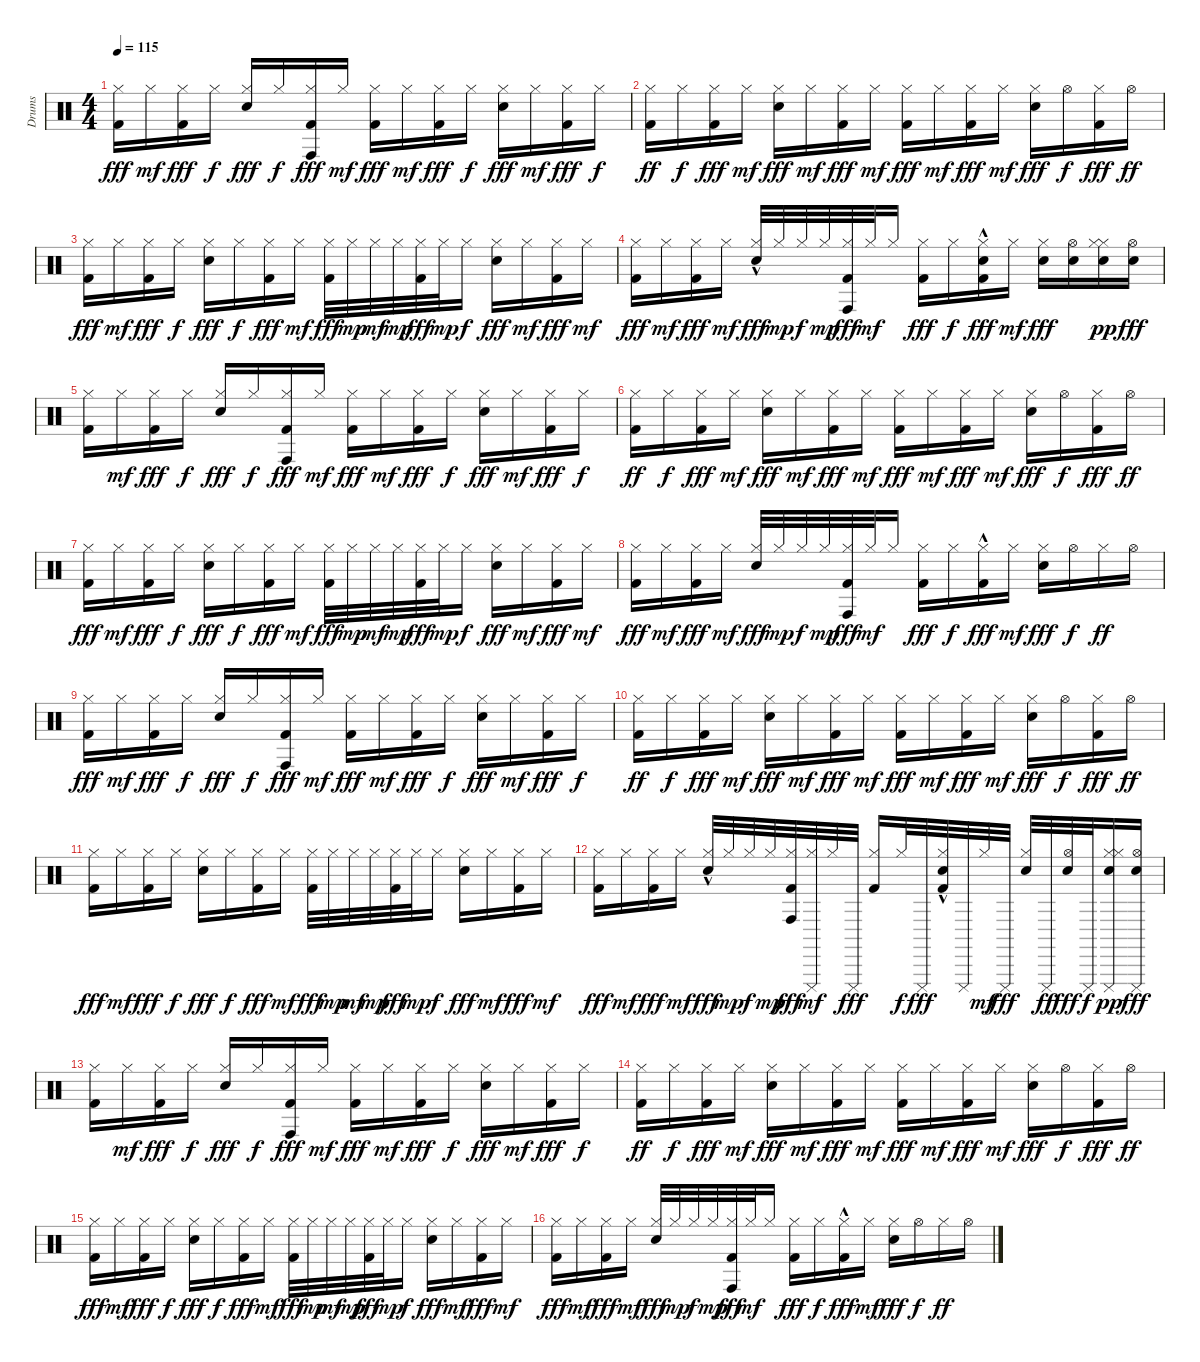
\track ("Drums" "Drums") {instrument percussion}
\staff {score}
\articulation defaults
\ts (4 4)
\tempo 115
\clef neutral
\ks c
("Hi-Hat (closed)" "Kick (hit) 2").16{dy fff} "Hi-Hat (closed)".16{dy mf} ("Hi-Hat (closed)" "Kick (hit) 2").16{dy fff} "Hi-Hat (closed)".16{dy f} ("Hi-Hat (closed)" "Snare (hit) 2").16{dy fff} "Hi-Hat (closed)".16{dy f} ("Hi-Hat (closed)" "Conga high (hit)" "Kick (hit) 2").16{dy fff} "Hi-Hat (closed)".16{dy mf} ("Hi-Hat (closed)" "Kick (hit) 2").16{dy fff} "Hi-Hat (closed)".16{dy mf} ("Hi-Hat (closed)" "Kick (hit) 2").16{dy fff} "Hi-Hat (closed)".16{dy f} ("Hi-Hat (closed)" "Snare (hit) 2").16{dy fff} "Hi-Hat (closed)".16{dy mf} ("Hi-Hat (closed)" "Kick (hit) 2").16{dy fff} "Hi-Hat (closed)".16{dy f} |
("Hi-Hat (closed)" "Kick (hit) 2").16{dy ff} "Hi-Hat (closed)".16{dy f} ("Hi-Hat (closed)" "Kick (hit) 2").16{dy fff} "Hi-Hat (closed)".16{dy mf} ("Hi-Hat (closed)" "Snare (hit) 2").16{dy fff} "Hi-Hat (closed)".16{dy mf} ("Hi-Hat (closed)" "Kick (hit) 2").16{dy fff} "Hi-Hat (closed)".16{dy mf} ("Hi-Hat (closed)" "Kick (hit) 2").16{dy fff} "Hi-Hat (closed)".16{dy mf} ("Hi-Hat (closed)" "Kick (hit) 2").16{dy fff} "Hi-Hat (closed)".16{dy mf} ("Hi-Hat (closed)" "Snare (hit) 2").16{dy fff} "Hi-Hat (open)".16{dy f} ("Hi-Hat (closed)" "Kick (hit) 2").16{dy fff} "Hi-Hat (open)".16{dy ff} |
("Hi-Hat (closed)" "Kick (hit) 2").16{dy fff} "Hi-Hat (closed)".16{dy mf} ("Hi-Hat (closed)" "Kick (hit) 2").16{dy fff} "Hi-Hat (closed)".16{dy f} ("Hi-Hat (closed)" "Snare (hit) 2").16{dy fff} "Hi-Hat (closed)".16{dy f} ("Hi-Hat (closed)" "Kick (hit) 2").16{dy fff} "Hi-Hat (closed)".16{dy mf} ("Hi-Hat (closed)" "Kick (hit) 2").32{dy fff} "Hi-Hat (closed)".32{dy mp} "Hi-Hat (closed)".32{dy mf} "Hi-Hat (closed)".32{dy mp} ("Hi-Hat (closed)" "Kick (hit) 2").32{dy fff} "Hi-Hat (closed)".32{dy mp} "Hi-Hat (closed)".16{dy f} ("Hi-Hat (closed)" "Snare (hit) 2").16{dy fff} "Hi-Hat (closed)".16{dy mf} ("Hi-Hat (closed)" "Kick (hit) 2").16{dy fff} "Hi-Hat (closed)".16{dy mf} |
("Hi-Hat (closed)" "Kick (hit) 2").16{dy fff} "Hi-Hat (closed)".16{dy mf} ("Hi-Hat (closed)" "Kick (hit) 2").16{dy fff} "Hi-Hat (closed)".16{dy mf} ("Hi-Hat (closed)" "Snare (hit) 2"{hac}).32{dy fff} "Hi-Hat (closed)".32{dy mp} "Hi-Hat (closed)".32{dy f} "Hi-Hat (closed)".32{dy mp} ("Hi-Hat (closed)" "Conga high (hit)" "Kick (hit) 2").32{dy fff} "Hi-Hat (closed)".32{dy mf} "Hi-Hat (closed)".16 ("Hi-Hat (closed)" "Kick (hit) 2").16{dy fff} "Hi-Hat (closed)".16{dy f} ("Hi-Hat (closed)" "Snare (hit) 2" "Kick (hit) 2"{hac}).16{dy fff} "Hi-Hat (closed)".16{dy mf} ("Hi-Hat (closed)" "Snare (hit) 2").16{dy fff} ("Hi-Hat (open)" "Snare (hit) 2").16 ("Hi-Hat (closed)" "Hi-Hat (closed)" "Snare (hit) 2").16{dy pp} ("Hi-Hat (open)" "Snare (hit) 2").16{dy fff} |
("Hi-Hat (closed)" "Kick (hit) 2").16 "Hi-Hat (closed)".16{dy mf} ("Hi-Hat (closed)" "Kick (hit) 2").16{dy fff} "Hi-Hat (closed)".16{dy f} ("Hi-Hat (closed)" "Snare (hit) 2").16{dy fff} "Hi-Hat (closed)".16{dy f} ("Hi-Hat (closed)" "Conga high (hit)" "Kick (hit) 2").16{dy fff} "Hi-Hat (closed)".16{dy mf} ("Hi-Hat (closed)" "Kick (hit) 2").16{dy fff} "Hi-Hat (closed)".16{dy mf} ("Hi-Hat (closed)" "Kick (hit) 2").16{dy fff} "Hi-Hat (closed)".16{dy f} ("Hi-Hat (closed)" "Snare (hit) 2").16{dy fff} "Hi-Hat (closed)".16{dy mf} ("Hi-Hat (closed)" "Kick (hit) 2").16{dy fff} "Hi-Hat (closed)".16{dy f} |
("Hi-Hat (closed)" "Kick (hit) 2").16{dy ff} "Hi-Hat (closed)".16{dy f} ("Hi-Hat (closed)" "Kick (hit) 2").16{dy fff} "Hi-Hat (closed)".16{dy mf} ("Hi-Hat (closed)" "Snare (hit) 2").16{dy fff} "Hi-Hat (closed)".16{dy mf} ("Hi-Hat (closed)" "Kick (hit) 2").16{dy fff} "Hi-Hat (closed)".16{dy mf} ("Hi-Hat (closed)" "Kick (hit) 2").16{dy fff} "Hi-Hat (closed)".16{dy mf} ("Hi-Hat (closed)" "Kick (hit) 2").16{dy fff} "Hi-Hat (closed)".16{dy mf} ("Hi-Hat (closed)" "Snare (hit) 2").16{dy fff} "Hi-Hat (open)".16{dy f} ("Hi-Hat (closed)" "Kick (hit) 2").16{dy fff} "Hi-Hat (open)".16{dy ff} |
("Hi-Hat (closed)" "Kick (hit) 2").16{dy fff} "Hi-Hat (closed)".16{dy mf} ("Hi-Hat (closed)" "Kick (hit) 2").16{dy fff} "Hi-Hat (closed)".16{dy f} ("Hi-Hat (closed)" "Snare (hit) 2").16{dy fff} "Hi-Hat (closed)".16{dy f} ("Hi-Hat (closed)" "Kick (hit) 2").16{dy fff} "Hi-Hat (closed)".16{dy mf} ("Hi-Hat (closed)" "Kick (hit) 2").32{dy fff} "Hi-Hat (closed)".32{dy mp} "Hi-Hat (closed)".32{dy mf} "Hi-Hat (closed)".32{dy mp} ("Hi-Hat (closed)" "Kick (hit) 2").32{dy fff} "Hi-Hat (closed)".32{dy mp} "Hi-Hat (closed)".16{dy f} ("Hi-Hat (closed)" "Snare (hit) 2").16{dy fff} "Hi-Hat (closed)".16{dy mf} ("Hi-Hat (closed)" "Kick (hit) 2").16{dy fff} "Hi-Hat (closed)".16{dy mf} |
("Hi-Hat (closed)" "Kick (hit) 2").16{dy fff} "Hi-Hat (closed)".16{dy mf} ("Hi-Hat (closed)" "Kick (hit) 2").16{dy fff} "Hi-Hat (closed)".16{dy mf} ("Hi-Hat (closed)" "Snare (hit) 2").32{dy fff} "Hi-Hat (closed)".32{dy mp} "Hi-Hat (closed)".32{dy f} "Hi-Hat (closed)".32{dy mp} ("Hi-Hat (closed)" "Conga high (hit)" "Kick (hit) 2").32{dy fff} "Hi-Hat (closed)".32{dy mf} "Hi-Hat (closed)".16 ("Hi-Hat (closed)" "Kick (hit) 2").16{dy fff} "Hi-Hat (closed)".16{dy f} ("Hi-Hat (closed)" "Kick (hit) 2"{hac}).16{dy fff} "Hi-Hat (closed)".16{dy mf} ("Hi-Hat (closed)" "Snare (hit) 2").16{dy fff} "Hi-Hat (open)".16{dy f} "Hi-Hat (closed)".16{dy ff} "Hi-Hat (open)".16 |
("Hi-Hat (closed)" "Kick (hit) 2").16{dy fff} "Hi-Hat (closed)".16{dy mf} ("Hi-Hat (closed)" "Kick (hit) 2").16{dy fff} "Hi-Hat (closed)".16{dy f} ("Hi-Hat (closed)" "Snare (hit) 2").16{dy fff} "Hi-Hat (closed)".16{dy f} ("Hi-Hat (closed)" "Conga high (hit)" "Kick (hit) 2").16{dy fff} "Hi-Hat (closed)".16{dy mf} ("Hi-Hat (closed)" "Kick (hit) 2").16{dy fff} "Hi-Hat (closed)".16{dy mf} ("Hi-Hat (closed)" "Kick (hit) 2").16{dy fff} "Hi-Hat (closed)".16{dy f} ("Hi-Hat (closed)" "Snare (hit) 2").16{dy fff} "Hi-Hat (closed)".16{dy mf} ("Hi-Hat (closed)" "Kick (hit) 2").16{dy fff} "Hi-Hat (closed)".16{dy f} |
("Hi-Hat (closed)" "Kick (hit) 2").16{dy ff} "Hi-Hat (closed)".16{dy f} ("Hi-Hat (closed)" "Kick (hit) 2").16{dy fff} "Hi-Hat (closed)".16{dy mf} ("Hi-Hat (closed)" "Snare (hit) 2").16{dy fff} "Hi-Hat (closed)".16{dy mf} ("Hi-Hat (closed)" "Kick (hit) 2").16{dy fff} "Hi-Hat (closed)".16{dy mf} ("Hi-Hat (closed)" "Kick (hit) 2").16{dy fff} "Hi-Hat (closed)".16{dy mf} ("Hi-Hat (closed)" "Kick (hit) 2").16{dy fff} "Hi-Hat (closed)".16{dy mf} ("Hi-Hat (closed)" "Snare (hit) 2").16{dy fff} "Hi-Hat (open)".16{dy f} ("Hi-Hat (closed)" "Kick (hit) 2").16{dy fff} "Hi-Hat (open)".16{dy ff} |
("Hi-Hat (closed)" "Kick (hit) 2").16{dy fff} "Hi-Hat (closed)".16{dy mf} ("Hi-Hat (closed)" "Kick (hit) 2").16{dy fff} "Hi-Hat (closed)".16{dy f} ("Hi-Hat (closed)" "Snare (hit) 2").16{dy fff} "Hi-Hat (closed)".16{dy f} ("Hi-Hat (closed)" "Kick (hit) 2").16{dy fff} "Hi-Hat (closed)".16{dy mf} ("Hi-Hat (closed)" "Kick (hit) 2").32{dy fff} "Hi-Hat (closed)".32{dy mp} "Hi-Hat (closed)".32{dy mf} "Hi-Hat (closed)".32{dy mp} ("Hi-Hat (closed)" "Kick (hit) 2").32{dy fff} "Hi-Hat (closed)".32{dy mp} "Hi-Hat (closed)".16{dy f} ("Hi-Hat (closed)" "Snare (hit) 2").16{dy fff} "Hi-Hat (closed)".16{dy mf} ("Hi-Hat (closed)" "Kick (hit) 2").16{dy fff} "Hi-Hat (closed)".16{dy mf} |
("Hi-Hat (closed)" "Kick (hit) 2").16{dy fff} "Hi-Hat (closed)".16{dy mf} ("Hi-Hat (closed)" "Kick (hit) 2").16{dy fff} "Hi-Hat (closed)".16{dy mf} ("Hi-Hat (closed)" "Snare (hit) 2"{hac}).32{dy fff} "Hi-Hat (closed)".32{dy mp} "Hi-Hat (closed)".32{dy f} "Hi-Hat (closed)".32{dy mp} ("Hi-Hat (closed)" "Conga high (hit)" "Kick (hit) 2").32{dy fff} ("Cuica (mute)" "Hi-Hat (closed)").32{dy mf} "Hi-Hat (closed)".32 "Cuica (mute)".32{dy fff} ("Hi-Hat (closed)" "Kick (hit) 2").16 "Hi-Hat (closed)".32{dy f} "Cuica (mute)".32{dy fff} ("Hi-Hat (closed)" "Snare (hit) 2" "Kick (hit) 2"{hac}).32 "Cuica (mute)".32 "Hi-Hat (closed)".32{dy mf} "Cuica (mute)".32{dy fff} ("Hi-Hat (closed)" "Snare (hit) 2").32 "Cuica (mute)".32{dy ff} ("Hi-Hat (open)" "Snare (hit) 2").32{dy fff} "Cuica (mute)".32{dy f} ("Hi-Hat (closed)" "Hi-Hat (closed)" "Snare (hit) 2" "Cuica (mute)").16{dy pp} ("Hi-Hat (open)" "Snare (hit) 2" "Cuica (mute)").16{dy fff} |
("Hi-Hat (closed)" "Kick (hit) 2").16 "Hi-Hat (closed)".16{dy mf} ("Hi-Hat (closed)" "Kick (hit) 2").16{dy fff} "Hi-Hat (closed)".16{dy f} ("Hi-Hat (closed)" "Snare (hit) 2").16{dy fff} "Hi-Hat (closed)".16{dy f} ("Hi-Hat (closed)" "Conga high (hit)" "Kick (hit) 2").16{dy fff} "Hi-Hat (closed)".16{dy mf} ("Hi-Hat (closed)" "Kick (hit) 2").16{dy fff} "Hi-Hat (closed)".16{dy mf} ("Hi-Hat (closed)" "Kick (hit) 2").16{dy fff} "Hi-Hat (closed)".16{dy f} ("Hi-Hat (closed)" "Snare (hit) 2").16{dy fff} "Hi-Hat (closed)".16{dy mf} ("Hi-Hat (closed)" "Kick (hit) 2").16{dy fff} "Hi-Hat (closed)".16{dy f} |
("Hi-Hat (closed)" "Kick (hit) 2").16{dy ff} "Hi-Hat (closed)".16{dy f} ("Hi-Hat (closed)" "Kick (hit) 2").16{dy fff} "Hi-Hat (closed)".16{dy mf} ("Hi-Hat (closed)" "Snare (hit) 2").16{dy fff} "Hi-Hat (closed)".16{dy mf} ("Hi-Hat (closed)" "Kick (hit) 2").16{dy fff} "Hi-Hat (closed)".16{dy mf} ("Hi-Hat (closed)" "Kick (hit) 2").16{dy fff} "Hi-Hat (closed)".16{dy mf} ("Hi-Hat (closed)" "Kick (hit) 2").16{dy fff} "Hi-Hat (closed)".16{dy mf} ("Hi-Hat (closed)" "Snare (hit) 2").16{dy fff} "Hi-Hat (open)".16{dy f} ("Hi-Hat (closed)" "Kick (hit) 2").16{dy fff} "Hi-Hat (open)".16{dy ff} |
("Hi-Hat (closed)" "Kick (hit) 2").16{dy fff} "Hi-Hat (closed)".16{dy mf} ("Hi-Hat (closed)" "Kick (hit) 2").16{dy fff} "Hi-Hat (closed)".16{dy f} ("Hi-Hat (closed)" "Snare (hit) 2").16{dy fff} "Hi-Hat (closed)".16{dy f} ("Hi-Hat (closed)" "Kick (hit) 2").16{dy fff} "Hi-Hat (closed)".16{dy mf} ("Hi-Hat (closed)" "Kick (hit) 2").32{dy fff} "Hi-Hat (closed)".32{dy mp} "Hi-Hat (closed)".32{dy mf} "Hi-Hat (closed)".32{dy mp} ("Hi-Hat (closed)" "Kick (hit) 2").32{dy fff} "Hi-Hat (closed)".32{dy mp} "Hi-Hat (closed)".16{dy f} ("Hi-Hat (closed)" "Snare (hit) 2").16{dy fff} "Hi-Hat (closed)".16{dy mf} ("Hi-Hat (closed)" "Kick (hit) 2").16{dy fff} "Hi-Hat (closed)".16{dy mf} |
("Hi-Hat (closed)" "Kick (hit) 2").16{dy fff} "Hi-Hat (closed)".16{dy mf} ("Hi-Hat (closed)" "Kick (hit) 2").16{dy fff} "Hi-Hat (closed)".16{dy mf} ("Hi-Hat (closed)" "Snare (hit) 2").32{dy fff} "Hi-Hat (closed)".32{dy mp} "Hi-Hat (closed)".32{dy f} "Hi-Hat (closed)".32{dy mp} ("Hi-Hat (closed)" "Conga high (hit)" "Kick (hit) 2").32{dy fff} "Hi-Hat (closed)".32{dy mf} "Hi-Hat (closed)".16 ("Hi-Hat (closed)" "Kick (hit) 2").16{dy fff} "Hi-Hat (closed)".16{dy f} ("Hi-Hat (closed)" "Kick (hit) 2"{hac}).16{dy fff} "Hi-Hat (closed)".16{dy mf} ("Hi-Hat (closed)" "Snare (hit) 2").16{dy fff} "Hi-Hat (open)".16{dy f} "Hi-Hat (closed)".16{dy ff} "Hi-Hat (open)".16
